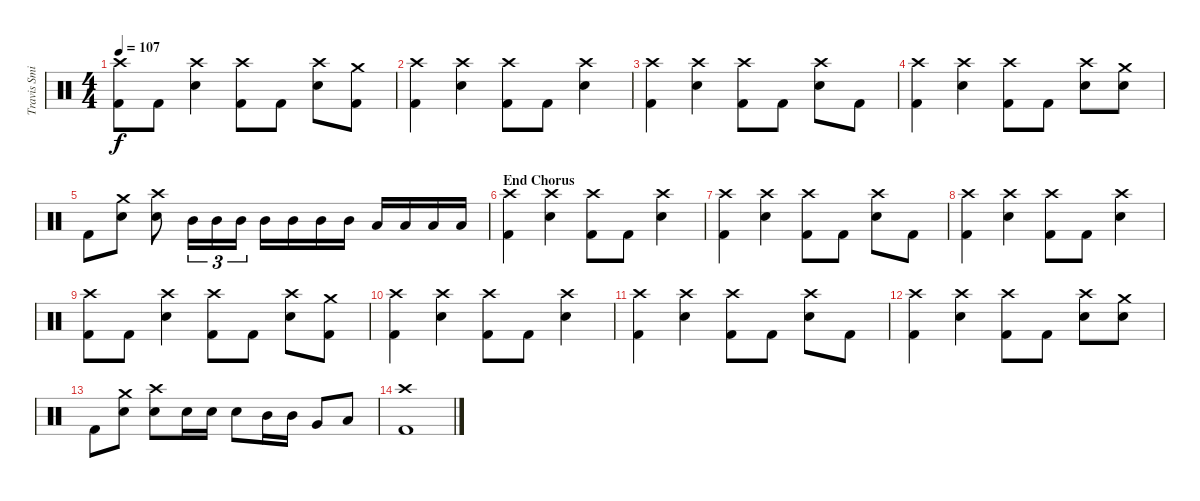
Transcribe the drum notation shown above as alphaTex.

\track ("Travis Smith" "Travis Smi") {instrument percussion}
\staff {score}
\articulation defaults
\ts (4 4)
\tempo 107
\clef neutral
\ks c
("Crash high (hit)" "Kick (hit) 2").8{dy f} "Kick (hit) 2".8 ("Crash high (hit)" "Electric Snare (hit)").4 ("Crash high (hit)" "Kick (hit) 2").8 "Kick (hit) 2".8 ("Crash high (hit)" "Electric Snare (hit)").8 ("Crash medium (hit)" "Kick (hit) 2").8 |
("Crash high (hit)" "Kick (hit) 2").4 ("Crash high (hit)" "Electric Snare (hit)").4 ("Crash high (hit)" "Kick (hit) 2").8 "Kick (hit) 2".8 ("Crash high (hit)" "Electric Snare (hit)").4 |
("Crash high (hit)" "Kick (hit) 2").4 ("Crash high (hit)" "Electric Snare (hit)").4 ("Crash high (hit)" "Kick (hit) 2").8 "Kick (hit) 2".8 ("Crash high (hit)" "Electric Snare (hit)").8 "Kick (hit) 2".8 |
("Crash high (hit)" "Kick (hit) 2").4 ("Crash high (hit)" "Electric Snare (hit)").4 ("Crash high (hit)" "Kick (hit) 2").8 "Kick (hit) 2".8 ("Crash high (hit)" "Electric Snare (hit)").8 ("Crash medium (hit)" "Electric Snare (hit)").8 |
"Kick (hit) 2".8 ("Crash medium (hit)" "Electric Snare (hit)").8 ("Crash high (hit)" "Electric Snare (hit)").8 "Mid Tom (hit)".16{tu (3 2)} "Mid Tom (hit)".16{tu (3 2)} "Mid Tom (hit)".16{tu (3 2)} "Mid Tom (hit)".16 "Mid Tom (hit)".16 "Mid Tom (hit)".16 "Mid Tom (hit)".16 "Low Tom (hit)".16 "Low Tom (hit)".16 "Low Floor Tom (hit)".16 "Low Floor Tom (hit)".16 |
\section ("" "End Chorus")
("Crash high (hit)" "Kick (hit) 2").4 ("Crash high (hit)" "Electric Snare (hit)").4 ("Crash high (hit)" "Kick (hit) 2").8 "Kick (hit) 2".8 ("Crash high (hit)" "Electric Snare (hit)").4 |
("Crash high (hit)" "Kick (hit) 2").4 ("Crash high (hit)" "Electric Snare (hit)").4 ("Crash high (hit)" "Kick (hit) 2").8 "Kick (hit) 2".8 ("Crash high (hit)" "Electric Snare (hit)").8 "Kick (hit) 2".8 |
("Crash high (hit)" "Kick (hit) 2").4 ("Crash high (hit)" "Electric Snare (hit)").4 ("Crash high (hit)" "Kick (hit) 2").8 "Kick (hit) 2".8 ("Crash high (hit)" "Electric Snare (hit)").4 |
("Crash high (hit)" "Kick (hit) 2").8 "Kick (hit) 2".8 ("Crash high (hit)" "Electric Snare (hit)").4 ("Crash high (hit)" "Kick (hit) 2").8 "Kick (hit) 2".8 ("Crash high (hit)" "Electric Snare (hit)").8 ("Crash medium (hit)" "Kick (hit) 2").8 |
("Crash high (hit)" "Kick (hit) 2").4 ("Crash high (hit)" "Electric Snare (hit)").4 ("Crash high (hit)" "Kick (hit) 2").8 "Kick (hit) 2".8 ("Crash high (hit)" "Electric Snare (hit)").4 |
("Crash high (hit)" "Kick (hit) 2").4 ("Crash high (hit)" "Electric Snare (hit)").4 ("Crash high (hit)" "Kick (hit) 2").8 "Kick (hit) 2".8 ("Crash high (hit)" "Electric Snare (hit)").8 "Kick (hit) 2".8 |
("Crash high (hit)" "Kick (hit) 2").4 ("Crash high (hit)" "Electric Snare (hit)").4 ("Crash high (hit)" "Kick (hit) 2").8 "Kick (hit) 2".8 ("Crash high (hit)" "Electric Snare (hit)").8 ("Crash medium (hit)" "Electric Snare (hit)").8 |
"Kick (hit) 2".8 ("Crash medium (hit)" "Electric Snare (hit)").8 ("Crash high (hit)" "Electric Snare (hit)").8 "Electric Snare (hit)".16 "Electric Snare (hit)".16 "Electric Snare (hit)".8 "Mid Tom (hit)".16 "Mid Tom (hit)".16 "Very Low Tom (hit)".8 "Low Floor Tom (hit)".8 |
("Crash high (hit)" "Kick (hit) 2").1
